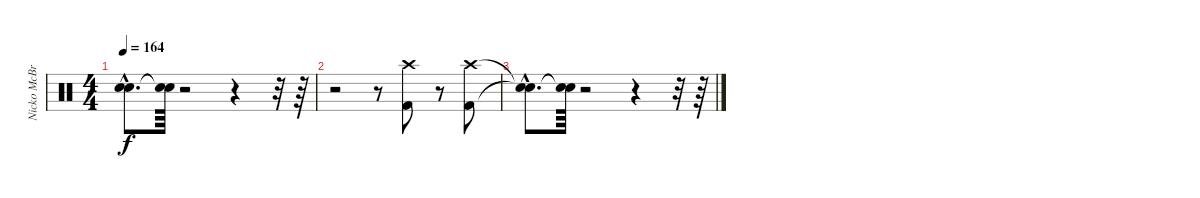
\track ("Nicko McBrian (Drums)" "Nicko McBr") {instrument percussion}
\staff {score}
\articulation defaults
\ts (4 4)
\tempo 164
\clef neutral
\ks c
("Snare (hit)"{hac t} "Snare (hit)"{hac t}).8{d dy f} ("Snare (hit)"{t} "Snare (hit)"{t}).64 r.2 r.4 r.32 r.64 |
r.2 r.8 ("Kick (hit) 2" "Crash high (hit)").8 r.8 ("Kick (hit) 2" "Crash high (hit)").8 |
("Snare (hit)"{hac t} "Snare (hit)"{hac t}).8{d} ("Snare (hit)"{t} "Snare (hit)"{t}).64 r.2 r.4 r.32 r.64
